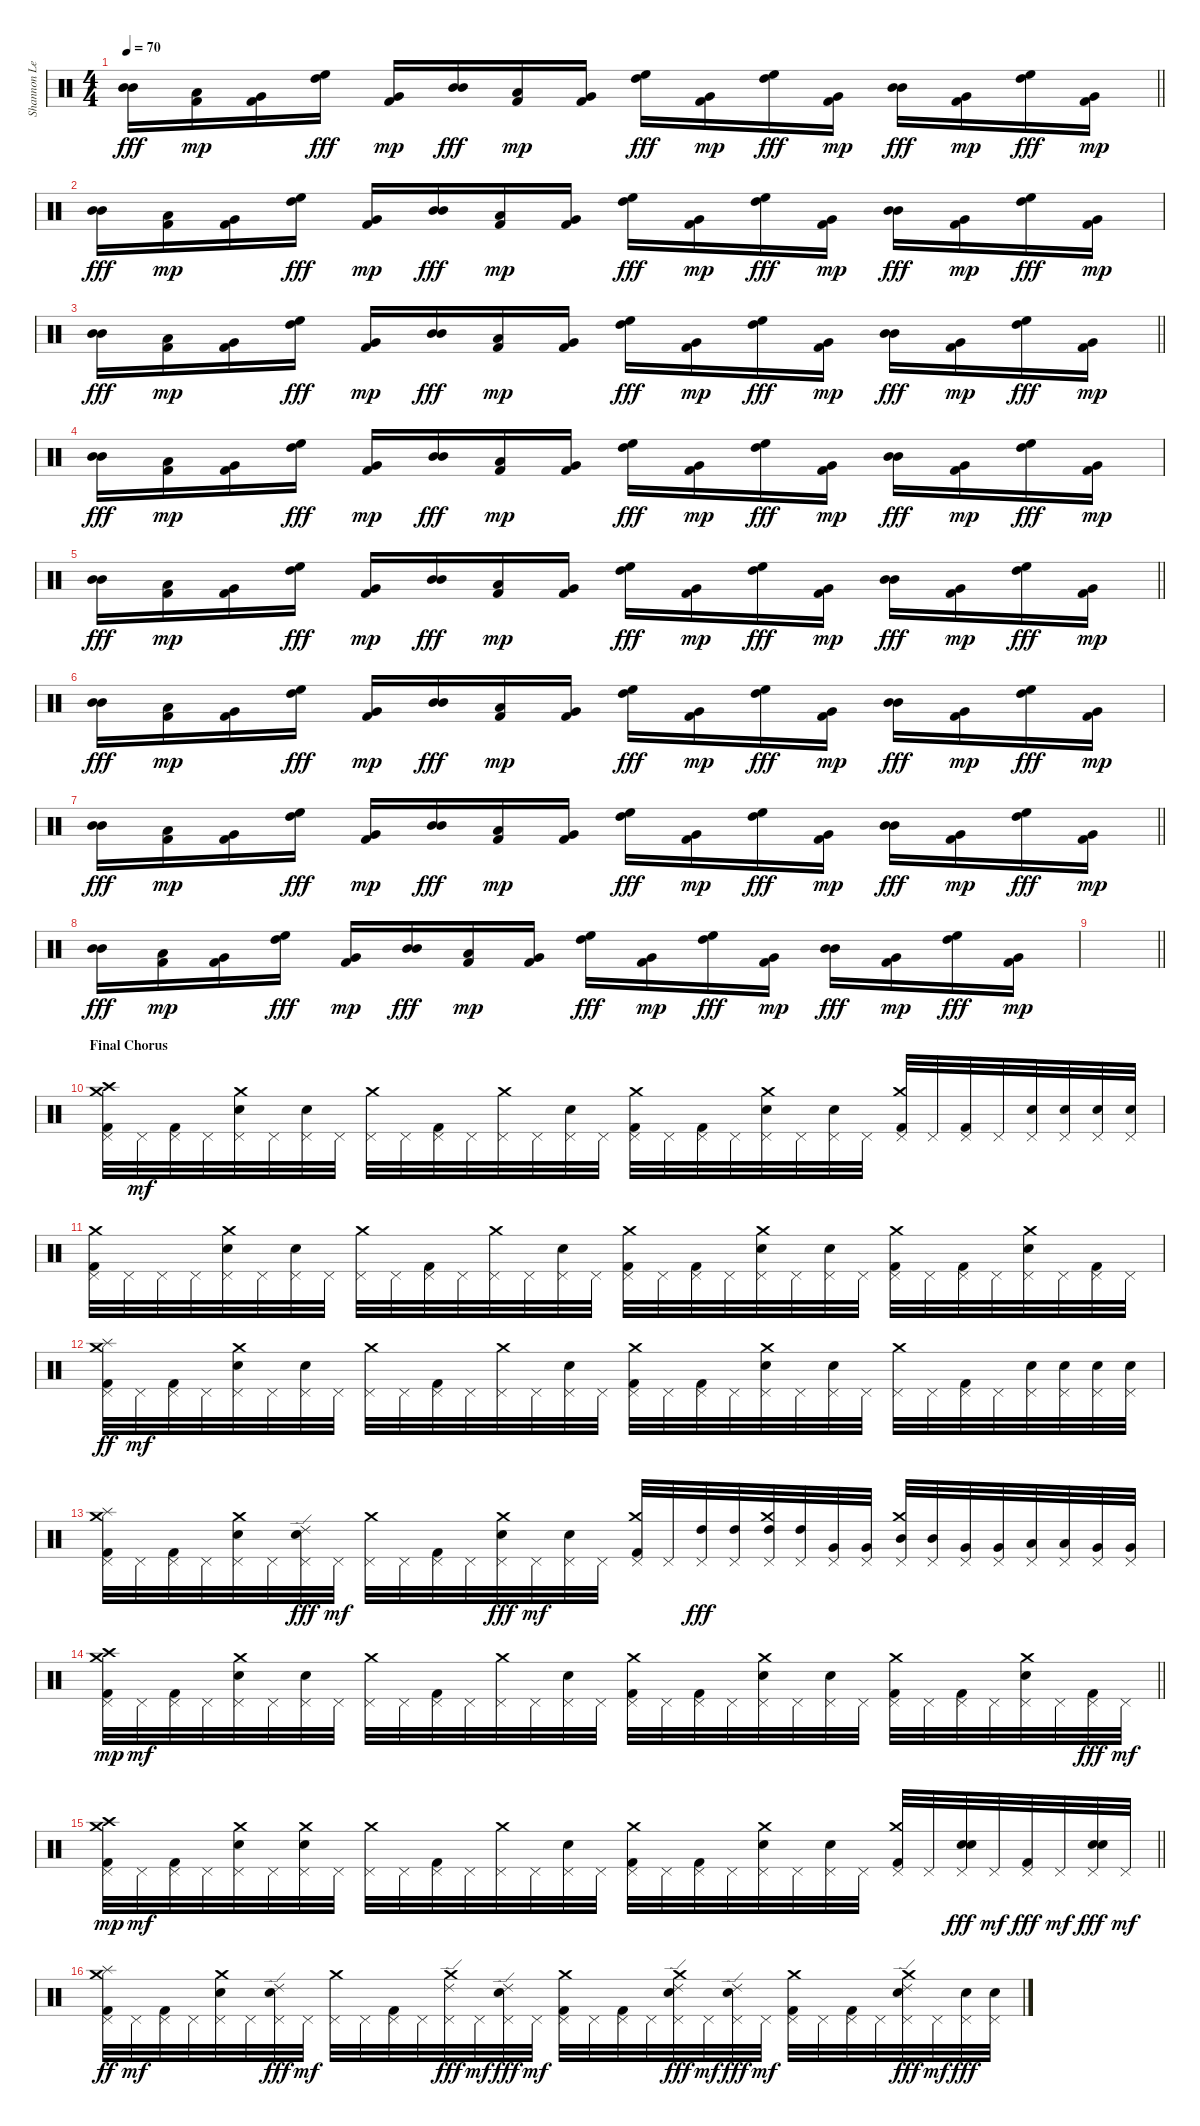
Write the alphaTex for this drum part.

\track ("Shannon Leto - Drums" "Shannon Le") {instrument percussion}
\staff {score}
\articulation defaults
\ts (4 4)
\tempo 70
\clef neutral
\barLineRight lightlight
\ks c
("Mid Tom (hit)" "Mid Tom (hit)").16{bd 30 dy fff} ("Low Tom (hit)" "Kick (hit) 2").16{dy mp} ("Very Low Tom (hit)" "Kick (hit) 2").16 ("High Floor Tom (hit)" "High Tom (hit)").16{bd 120 dy fff} ("Very Low Tom (hit)" "Kick (hit) 2").16{dy mp} ("Mid Tom (hit)" "Mid Tom (hit)").16{bd 30 dy fff} ("Low Tom (hit)" "Kick (hit) 2").16{dy mp} ("Very Low Tom (hit)" "Kick (hit) 2").16 ("High Floor Tom (hit)" "High Tom (hit)").16{bd 30 dy fff} ("Very Low Tom (hit)" "Kick (hit) 2").16{dy mp} ("High Floor Tom (hit)" "High Tom (hit)").16{bd 60 dy fff} ("Very Low Tom (hit)" "Kick (hit) 2").16{dy mp} ("Mid Tom (hit)" "Mid Tom (hit)").16{bd 30 dy fff} ("Very Low Tom (hit)" "Kick (hit) 2").16{dy mp} ("High Floor Tom (hit)" "High Tom (hit)").16{bd 30 dy fff} ("Very Low Tom (hit)" "Kick (hit) 2").16{dy mp} |
("Mid Tom (hit)" "Mid Tom (hit)").16{bd 30 dy fff} ("Low Tom (hit)" "Kick (hit) 2").16{dy mp} ("Very Low Tom (hit)" "Kick (hit) 2").16 ("High Floor Tom (hit)" "High Tom (hit)").16{bd 120 dy fff} ("Very Low Tom (hit)" "Kick (hit) 2").16{dy mp} ("Mid Tom (hit)" "Mid Tom (hit)").16{bd 30 dy fff} ("Low Tom (hit)" "Kick (hit) 2").16{dy mp} ("Very Low Tom (hit)" "Kick (hit) 2").16 ("High Floor Tom (hit)" "High Tom (hit)").16{bd 30 dy fff} ("Very Low Tom (hit)" "Kick (hit) 2").16{dy mp} ("High Floor Tom (hit)" "High Tom (hit)").16{bd 60 dy fff} ("Very Low Tom (hit)" "Kick (hit) 2").16{dy mp} ("Mid Tom (hit)" "Mid Tom (hit)").16{bd 30 dy fff} ("Very Low Tom (hit)" "Kick (hit) 2").16{dy mp} ("High Floor Tom (hit)" "High Tom (hit)").16{bd 30 dy fff} ("Very Low Tom (hit)" "Kick (hit) 2").16{dy mp} |
\barLineRight lightlight
("Mid Tom (hit)" "Mid Tom (hit)").16{bd 30 dy fff} ("Low Tom (hit)" "Kick (hit) 2").16{dy mp} ("Very Low Tom (hit)" "Kick (hit) 2").16 ("High Floor Tom (hit)" "High Tom (hit)").16{bd 120 dy fff} ("Very Low Tom (hit)" "Kick (hit) 2").16{dy mp} ("Mid Tom (hit)" "Mid Tom (hit)").16{bd 30 dy fff} ("Low Tom (hit)" "Kick (hit) 2").16{dy mp} ("Very Low Tom (hit)" "Kick (hit) 2").16 ("High Floor Tom (hit)" "High Tom (hit)").16{bd 30 dy fff} ("Very Low Tom (hit)" "Kick (hit) 2").16{dy mp} ("High Floor Tom (hit)" "High Tom (hit)").16{bd 60 dy fff} ("Very Low Tom (hit)" "Kick (hit) 2").16{dy mp} ("Mid Tom (hit)" "Mid Tom (hit)").16{bd 30 dy fff} ("Very Low Tom (hit)" "Kick (hit) 2").16{dy mp} ("High Floor Tom (hit)" "High Tom (hit)").16{bd 30 dy fff} ("Very Low Tom (hit)" "Kick (hit) 2").16{dy mp} |
("Mid Tom (hit)" "Mid Tom (hit)").16{bd 30 dy fff} ("Low Tom (hit)" "Kick (hit) 2").16{dy mp} ("Very Low Tom (hit)" "Kick (hit) 2").16 ("High Floor Tom (hit)" "High Tom (hit)").16{bd 120 dy fff} ("Very Low Tom (hit)" "Kick (hit) 2").16{dy mp} ("Mid Tom (hit)" "Mid Tom (hit)").16{bd 30 dy fff} ("Low Tom (hit)" "Kick (hit) 2").16{dy mp} ("Very Low Tom (hit)" "Kick (hit) 2").16 ("High Floor Tom (hit)" "High Tom (hit)").16{bd 30 dy fff} ("Very Low Tom (hit)" "Kick (hit) 2").16{dy mp} ("High Floor Tom (hit)" "High Tom (hit)").16{bd 60 dy fff} ("Very Low Tom (hit)" "Kick (hit) 2").16{dy mp} ("Mid Tom (hit)" "Mid Tom (hit)").16{bd 30 dy fff} ("Very Low Tom (hit)" "Kick (hit) 2").16{dy mp} ("High Floor Tom (hit)" "High Tom (hit)").16{bd 30 dy fff} ("Very Low Tom (hit)" "Kick (hit) 2").16{dy mp} |
\barLineRight lightlight
("Mid Tom (hit)" "Mid Tom (hit)").16{bd 30 dy fff} ("Low Tom (hit)" "Kick (hit) 2").16{dy mp} ("Very Low Tom (hit)" "Kick (hit) 2").16 ("High Floor Tom (hit)" "High Tom (hit)").16{bd 120 dy fff} ("Very Low Tom (hit)" "Kick (hit) 2").16{dy mp} ("Mid Tom (hit)" "Mid Tom (hit)").16{bd 30 dy fff} ("Low Tom (hit)" "Kick (hit) 2").16{dy mp} ("Very Low Tom (hit)" "Kick (hit) 2").16 ("High Floor Tom (hit)" "High Tom (hit)").16{bd 30 dy fff} ("Very Low Tom (hit)" "Kick (hit) 2").16{dy mp} ("High Floor Tom (hit)" "High Tom (hit)").16{bd 60 dy fff} ("Very Low Tom (hit)" "Kick (hit) 2").16{dy mp} ("Mid Tom (hit)" "Mid Tom (hit)").16{bd 30 dy fff} ("Very Low Tom (hit)" "Kick (hit) 2").16{dy mp} ("High Floor Tom (hit)" "High Tom (hit)").16{bd 30 dy fff} ("Very Low Tom (hit)" "Kick (hit) 2").16{dy mp} |
("Mid Tom (hit)" "Mid Tom (hit)").16{bd 30 dy fff} ("Low Tom (hit)" "Kick (hit) 2").16{dy mp} ("Very Low Tom (hit)" "Kick (hit) 2").16 ("High Floor Tom (hit)" "High Tom (hit)").16{bd 120 dy fff} ("Very Low Tom (hit)" "Kick (hit) 2").16{dy mp} ("Mid Tom (hit)" "Mid Tom (hit)").16{bd 30 dy fff} ("Low Tom (hit)" "Kick (hit) 2").16{dy mp} ("Very Low Tom (hit)" "Kick (hit) 2").16 ("High Floor Tom (hit)" "High Tom (hit)").16{bd 30 dy fff} ("Very Low Tom (hit)" "Kick (hit) 2").16{dy mp} ("High Floor Tom (hit)" "High Tom (hit)").16{bd 60 dy fff} ("Very Low Tom (hit)" "Kick (hit) 2").16{dy mp} ("Mid Tom (hit)" "Mid Tom (hit)").16{bd 30 dy fff} ("Very Low Tom (hit)" "Kick (hit) 2").16{dy mp} ("High Floor Tom (hit)" "High Tom (hit)").16{bd 30 dy fff} ("Very Low Tom (hit)" "Kick (hit) 2").16{dy mp} |
\barLineRight lightlight
("Mid Tom (hit)" "Mid Tom (hit)").16{bd 30 dy fff} ("Low Tom (hit)" "Kick (hit) 2").16{dy mp} ("Very Low Tom (hit)" "Kick (hit) 2").16 ("High Floor Tom (hit)" "High Tom (hit)").16{bd 120 dy fff} ("Very Low Tom (hit)" "Kick (hit) 2").16{dy mp} ("Mid Tom (hit)" "Mid Tom (hit)").16{bd 30 dy fff} ("Low Tom (hit)" "Kick (hit) 2").16{dy mp} ("Very Low Tom (hit)" "Kick (hit) 2").16 ("High Floor Tom (hit)" "High Tom (hit)").16{bd 30 dy fff} ("Very Low Tom (hit)" "Kick (hit) 2").16{dy mp} ("High Floor Tom (hit)" "High Tom (hit)").16{bd 60 dy fff} ("Very Low Tom (hit)" "Kick (hit) 2").16{dy mp} ("Mid Tom (hit)" "Mid Tom (hit)").16{bd 30 dy fff} ("Very Low Tom (hit)" "Kick (hit) 2").16{dy mp} ("High Floor Tom (hit)" "High Tom (hit)").16{bd 30 dy fff} ("Very Low Tom (hit)" "Kick (hit) 2").16{dy mp} |
("Mid Tom (hit)" "Mid Tom (hit)").16{bd 30 dy fff} ("Low Tom (hit)" "Kick (hit) 2").16{dy mp} ("Very Low Tom (hit)" "Kick (hit) 2").16 ("High Floor Tom (hit)" "High Tom (hit)").16{bd 120 dy fff} ("Very Low Tom (hit)" "Kick (hit) 2").16{dy mp} ("Mid Tom (hit)" "Mid Tom (hit)").16{bd 30 dy fff} ("Low Tom (hit)" "Kick (hit) 2").16{dy mp} ("Very Low Tom (hit)" "Kick (hit) 2").16 ("High Floor Tom (hit)" "High Tom (hit)").16{bd 30 dy fff} ("Very Low Tom (hit)" "Kick (hit) 2").16{dy mp} ("High Floor Tom (hit)" "High Tom (hit)").16{bd 60 dy fff} ("Very Low Tom (hit)" "Kick (hit) 2").16{dy mp} ("Mid Tom (hit)" "Mid Tom (hit)").16{bd 30 dy fff} ("Very Low Tom (hit)" "Kick (hit) 2").16{dy mp} ("High Floor Tom (hit)" "High Tom (hit)").16{bd 30 dy fff} ("Very Low Tom (hit)" "Kick (hit) 2").16{dy mp} |
\barLineRight lightlight
|
\section ("" "Final Chorus")
("Crash medium (hit)" "Pedal Hi-Hat (hit)" "Crash high (hit)" "Kick (hit) 2").32 "Pedal Hi-Hat (hit)".32{dy mf} ("Pedal Hi-Hat (hit)" "Kick (hit) 2").32 "Pedal Hi-Hat (hit)".32 ("Crash medium (hit)" "Pedal Hi-Hat (hit)" "Electric Snare (hit)").32 "Pedal Hi-Hat (hit)".32 ("Pedal Hi-Hat (hit)" "Electric Snare (hit)").32 "Pedal Hi-Hat (hit)".32 ("Crash medium (hit)" "Pedal Hi-Hat (hit)").32 "Pedal Hi-Hat (hit)".32 ("Pedal Hi-Hat (hit)" "Kick (hit) 2").32 "Pedal Hi-Hat (hit)".32 ("Crash medium (hit)" "Pedal Hi-Hat (hit)").32 "Pedal Hi-Hat (hit)".32 ("Pedal Hi-Hat (hit)" "Electric Snare (hit)").32 "Pedal Hi-Hat (hit)".32 ("Crash medium (hit)" "Pedal Hi-Hat (hit)" "Kick (hit) 2").32 "Pedal Hi-Hat (hit)".32 ("Pedal Hi-Hat (hit)" "Kick (hit) 2").32 "Pedal Hi-Hat (hit)".32 ("Crash medium (hit)" "Pedal Hi-Hat (hit)" "Electric Snare (hit)").32 "Pedal Hi-Hat (hit)".32 ("Pedal Hi-Hat (hit)" "Electric Snare (hit)").32 "Pedal Hi-Hat (hit)".32 ("Crash medium (hit)" "Pedal Hi-Hat (hit)" "Kick (hit) 2").32 "Pedal Hi-Hat (hit)".32 ("Pedal Hi-Hat (hit)" "Kick (hit) 2").32 "Pedal Hi-Hat (hit)".32 ("Pedal Hi-Hat (hit)" "Electric Snare (hit)").32 ("Pedal Hi-Hat (hit)" "Electric Snare (hit)").32 ("Pedal Hi-Hat (hit)" "Electric Snare (hit)").32 ("Pedal Hi-Hat (hit)" "Electric Snare (hit)").32 |
("Crash medium (hit)" "Pedal Hi-Hat (hit)" "Kick (hit) 2").32 "Pedal Hi-Hat (hit)".32 "Pedal Hi-Hat (hit)".32 "Pedal Hi-Hat (hit)".32 ("Crash medium (hit)" "Pedal Hi-Hat (hit)" "Electric Snare (hit)").32 "Pedal Hi-Hat (hit)".32 ("Pedal Hi-Hat (hit)" "Electric Snare (hit)").32 "Pedal Hi-Hat (hit)".32 ("Crash medium (hit)" "Pedal Hi-Hat (hit)").32 "Pedal Hi-Hat (hit)".32 ("Pedal Hi-Hat (hit)" "Kick (hit) 2").32 "Pedal Hi-Hat (hit)".32 ("Crash medium (hit)" "Pedal Hi-Hat (hit)").32 "Pedal Hi-Hat (hit)".32 ("Pedal Hi-Hat (hit)" "Electric Snare (hit)").32 "Pedal Hi-Hat (hit)".32 ("Crash medium (hit)" "Pedal Hi-Hat (hit)" "Kick (hit) 2").32 "Pedal Hi-Hat (hit)".32 ("Pedal Hi-Hat (hit)" "Kick (hit) 2").32 "Pedal Hi-Hat (hit)".32 ("Crash medium (hit)" "Pedal Hi-Hat (hit)" "Electric Snare (hit)").32 "Pedal Hi-Hat (hit)".32 ("Pedal Hi-Hat (hit)" "Electric Snare (hit)").32 "Pedal Hi-Hat (hit)".32 ("Crash medium (hit)" "Pedal Hi-Hat (hit)" "Kick (hit) 2").32 "Pedal Hi-Hat (hit)".32 ("Pedal Hi-Hat (hit)" "Kick (hit) 2").32 "Pedal Hi-Hat (hit)".32 ("Crash medium (hit)" "Pedal Hi-Hat (hit)" "Electric Snare (hit)").32 "Pedal Hi-Hat (hit)".32 ("Pedal Hi-Hat (hit)" "Kick (hit) 2").32 "Pedal Hi-Hat (hit)".32 |
("Crash medium (hit)" "Pedal Hi-Hat (hit)" "Splash (hit)" "Kick (hit) 2").32{dy ff} "Pedal Hi-Hat (hit)".32{dy mf} ("Pedal Hi-Hat (hit)" "Kick (hit) 2").32 "Pedal Hi-Hat (hit)".32 ("Crash medium (hit)" "Pedal Hi-Hat (hit)" "Electric Snare (hit)").32 "Pedal Hi-Hat (hit)".32 ("Pedal Hi-Hat (hit)" "Electric Snare (hit)").32 "Pedal Hi-Hat (hit)".32 ("Crash medium (hit)" "Pedal Hi-Hat (hit)").32 "Pedal Hi-Hat (hit)".32 ("Pedal Hi-Hat (hit)" "Kick (hit) 2").32 "Pedal Hi-Hat (hit)".32 ("Crash medium (hit)" "Pedal Hi-Hat (hit)").32 "Pedal Hi-Hat (hit)".32 ("Pedal Hi-Hat (hit)" "Electric Snare (hit)").32 "Pedal Hi-Hat (hit)".32 ("Crash medium (hit)" "Pedal Hi-Hat (hit)" "Kick (hit) 2").32 "Pedal Hi-Hat (hit)".32 ("Pedal Hi-Hat (hit)" "Kick (hit) 2").32 "Pedal Hi-Hat (hit)".32 ("Crash medium (hit)" "Pedal Hi-Hat (hit)" "Electric Snare (hit)").32 "Pedal Hi-Hat (hit)".32 ("Pedal Hi-Hat (hit)" "Electric Snare (hit)").32 "Pedal Hi-Hat (hit)".32 ("Crash medium (hit)" "Pedal Hi-Hat (hit)").32 "Pedal Hi-Hat (hit)".32 ("Pedal Hi-Hat (hit)" "Kick (hit) 2").32 "Pedal Hi-Hat (hit)".32 ("Pedal Hi-Hat (hit)" "Electric Snare (hit)").32 ("Pedal Hi-Hat (hit)" "Electric Snare (hit)").32 ("Pedal Hi-Hat (hit)" "Electric Snare (hit)").32 ("Pedal Hi-Hat (hit)" "Electric Snare (hit)").32 |
("Crash medium (hit)" "Pedal Hi-Hat (hit)" "Splash (hit)" "Kick (hit) 2").32 "Pedal Hi-Hat (hit)".32 ("Pedal Hi-Hat (hit)" "Kick (hit) 2").32 "Pedal Hi-Hat (hit)".32 ("Crash medium (hit)" "Pedal Hi-Hat (hit)" "Electric Snare (hit)").32 "Pedal Hi-Hat (hit)".32 ("Pedal Hi-Hat (hit)" "Electric Snare (hit)" "Ride (edge) 2").32{dy fff} "Pedal Hi-Hat (hit)".32{dy mf} ("Crash medium (hit)" "Pedal Hi-Hat (hit)").32 "Pedal Hi-Hat (hit)".32 ("Pedal Hi-Hat (hit)" "Kick (hit) 2").32 "Pedal Hi-Hat (hit)".32 ("Crash medium (hit)" "Pedal Hi-Hat (hit)" "Electric Snare (hit)").32{dy fff} "Pedal Hi-Hat (hit)".32{dy mf} ("Pedal Hi-Hat (hit)" "Electric Snare (hit)").32 "Pedal Hi-Hat (hit)".32 ("Crash medium (hit)" "Pedal Hi-Hat (hit)" "Kick (hit) 2").32 "Pedal Hi-Hat (hit)".32 ("Pedal Hi-Hat (hit)" "High Tom (hit)").32{dy fff} ("Pedal Hi-Hat (hit)" "High Tom (hit)").32 ("Crash medium (hit)" "Pedal Hi-Hat (hit)" "High Tom (hit)").32 ("Pedal Hi-Hat (hit)" "High Tom (hit)").32 ("Pedal Hi-Hat (hit)" "Very Low Tom (hit)").32 ("Pedal Hi-Hat (hit)" "Very Low Tom (hit)").32 ("Crash medium (hit)" "Pedal Hi-Hat (hit)" "Mid Tom (hit)").32 ("Pedal Hi-Hat (hit)" "Mid Tom (hit)").32 ("Pedal Hi-Hat (hit)" "Very Low Tom (hit)").32 ("Pedal Hi-Hat (hit)" "Very Low Tom (hit)").32 ("Pedal Hi-Hat (hit)" "Low Tom (hit)").32 ("Pedal Hi-Hat (hit)" "Low Tom (hit)").32 ("Pedal Hi-Hat (hit)" "Very Low Tom (hit)").32 ("Pedal Hi-Hat (hit)" "Very Low Tom (hit)").32 |
\barLineRight lightlight
("Crash medium (hit)" "Pedal Hi-Hat (hit)" "Crash high (hit)" "Kick (hit) 2").32{dy mp} "Pedal Hi-Hat (hit)".32{dy mf} ("Pedal Hi-Hat (hit)" "Kick (hit) 2").32 "Pedal Hi-Hat (hit)".32 ("Crash medium (hit)" "Pedal Hi-Hat (hit)" "Electric Snare (hit)").32 "Pedal Hi-Hat (hit)".32 ("Pedal Hi-Hat (hit)" "Electric Snare (hit)").32 "Pedal Hi-Hat (hit)".32 ("Crash medium (hit)" "Pedal Hi-Hat (hit)").32 "Pedal Hi-Hat (hit)".32 ("Pedal Hi-Hat (hit)" "Kick (hit) 2").32 "Pedal Hi-Hat (hit)".32 ("Crash medium (hit)" "Pedal Hi-Hat (hit)").32 "Pedal Hi-Hat (hit)".32 ("Pedal Hi-Hat (hit)" "Electric Snare (hit)").32 "Pedal Hi-Hat (hit)".32 ("Crash medium (hit)" "Pedal Hi-Hat (hit)" "Kick (hit) 2").32 "Pedal Hi-Hat (hit)".32 ("Pedal Hi-Hat (hit)" "Kick (hit) 2").32 "Pedal Hi-Hat (hit)".32 ("Crash medium (hit)" "Pedal Hi-Hat (hit)" "Electric Snare (hit)").32 "Pedal Hi-Hat (hit)".32 ("Pedal Hi-Hat (hit)" "Electric Snare (hit)").32 "Pedal Hi-Hat (hit)".32 ("Crash medium (hit)" "Pedal Hi-Hat (hit)" "Kick (hit) 2").32 "Pedal Hi-Hat (hit)".32 ("Pedal Hi-Hat (hit)" "Kick (hit) 2").32 "Pedal Hi-Hat (hit)".32 ("Crash medium (hit)" "Pedal Hi-Hat (hit)" "Electric Snare (hit)").32 "Pedal Hi-Hat (hit)".32 ("Pedal Hi-Hat (hit)" "Kick (hit) 2").32{dy fff} "Pedal Hi-Hat (hit)".32{dy mf} |
\barLineRight lightlight
("Crash medium (hit)" "Pedal Hi-Hat (hit)" "Crash high (hit)" "Kick (hit) 2").32{dy mp} "Pedal Hi-Hat (hit)".32{dy mf} ("Pedal Hi-Hat (hit)" "Kick (hit) 2").32 "Pedal Hi-Hat (hit)".32 ("Crash medium (hit)" "Pedal Hi-Hat (hit)" "Electric Snare (hit)").32 "Pedal Hi-Hat (hit)".32 ("Crash medium (hit)" "Pedal Hi-Hat (hit)" "Electric Snare (hit)").32 "Pedal Hi-Hat (hit)".32 ("Crash medium (hit)" "Pedal Hi-Hat (hit)").32 "Pedal Hi-Hat (hit)".32 ("Pedal Hi-Hat (hit)" "Kick (hit) 2").32 "Pedal Hi-Hat (hit)".32 ("Crash medium (hit)" "Pedal Hi-Hat (hit)").32 "Pedal Hi-Hat (hit)".32 ("Pedal Hi-Hat (hit)" "Electric Snare (hit)").32 "Pedal Hi-Hat (hit)".32 ("Crash medium (hit)" "Pedal Hi-Hat (hit)" "Kick (hit) 2").32 "Pedal Hi-Hat (hit)".32 ("Pedal Hi-Hat (hit)" "Kick (hit) 2").32 "Pedal Hi-Hat (hit)".32 ("Crash medium (hit)" "Pedal Hi-Hat (hit)" "Electric Snare (hit)").32 "Pedal Hi-Hat (hit)".32 ("Pedal Hi-Hat (hit)" "Electric Snare (hit)").32 "Pedal Hi-Hat (hit)".32 ("Crash medium (hit)" "Pedal Hi-Hat (hit)" "Kick (hit) 2").32 "Pedal Hi-Hat (hit)".32 ("Pedal Hi-Hat (hit)" "Electric Snare (hit)" "Electric Snare (hit)").32{dy fff} "Pedal Hi-Hat (hit)".32{dy mf} ("Pedal Hi-Hat (hit)" "Kick (hit) 2").32{dy fff} "Pedal Hi-Hat (hit)".32{dy mf} ("Pedal Hi-Hat (hit)" "Electric Snare (hit)" "Electric Snare (hit)").32{dy fff} "Pedal Hi-Hat (hit)".32{dy mf} |
("Crash medium (hit)" "Pedal Hi-Hat (hit)" "Splash (hit)" "Kick (hit) 2").32{dy ff} "Pedal Hi-Hat (hit)".32{dy mf} ("Pedal Hi-Hat (hit)" "Kick (hit) 2").32 "Pedal Hi-Hat (hit)".32 ("Crash medium (hit)" "Pedal Hi-Hat (hit)" "Electric Snare (hit)").32 "Pedal Hi-Hat (hit)".32 ("Pedal Hi-Hat (hit)" "Electric Snare (hit)" "Ride (edge) 2").32{dy fff} "Pedal Hi-Hat (hit)".32{dy mf} ("Crash medium (hit)" "Pedal Hi-Hat (hit)").32 "Pedal Hi-Hat (hit)".32 ("Pedal Hi-Hat (hit)" "Kick (hit) 2").32 "Pedal Hi-Hat (hit)".32 ("Crash medium (hit)" "Pedal Hi-Hat (hit)" "Ride (edge) 2").32{dy fff} "Pedal Hi-Hat (hit)".32{dy mf} ("Pedal Hi-Hat (hit)" "Electric Snare (hit)" "Ride (edge) 2").32{dy fff} "Pedal Hi-Hat (hit)".32{dy mf} ("Crash medium (hit)" "Pedal Hi-Hat (hit)" "Kick (hit) 2").32 "Pedal Hi-Hat (hit)".32 ("Pedal Hi-Hat (hit)" "Kick (hit) 2").32 "Pedal Hi-Hat (hit)".32 ("Crash medium (hit)" "Pedal Hi-Hat (hit)" "Electric Snare (hit)" "Ride (edge) 2").32{dy fff} "Pedal Hi-Hat (hit)".32{dy mf} ("Pedal Hi-Hat (hit)" "Electric Snare (hit)" "Ride (edge) 2").32{dy fff} "Pedal Hi-Hat (hit)".32{dy mf} ("Crash medium (hit)" "Pedal Hi-Hat (hit)" "Kick (hit) 2").32 "Pedal Hi-Hat (hit)".32 ("Pedal Hi-Hat (hit)" "Kick (hit) 2").32 "Pedal Hi-Hat (hit)".32 ("Crash medium (hit)" "Pedal Hi-Hat (hit)" "Electric Snare (hit)" "Ride (edge) 2").32{dy fff} "Pedal Hi-Hat (hit)".32{dy mf} ("Pedal Hi-Hat (hit)" "Electric Snare (hit)").32{dy fff} ("Pedal Hi-Hat (hit)" "Electric Snare (hit)").32
